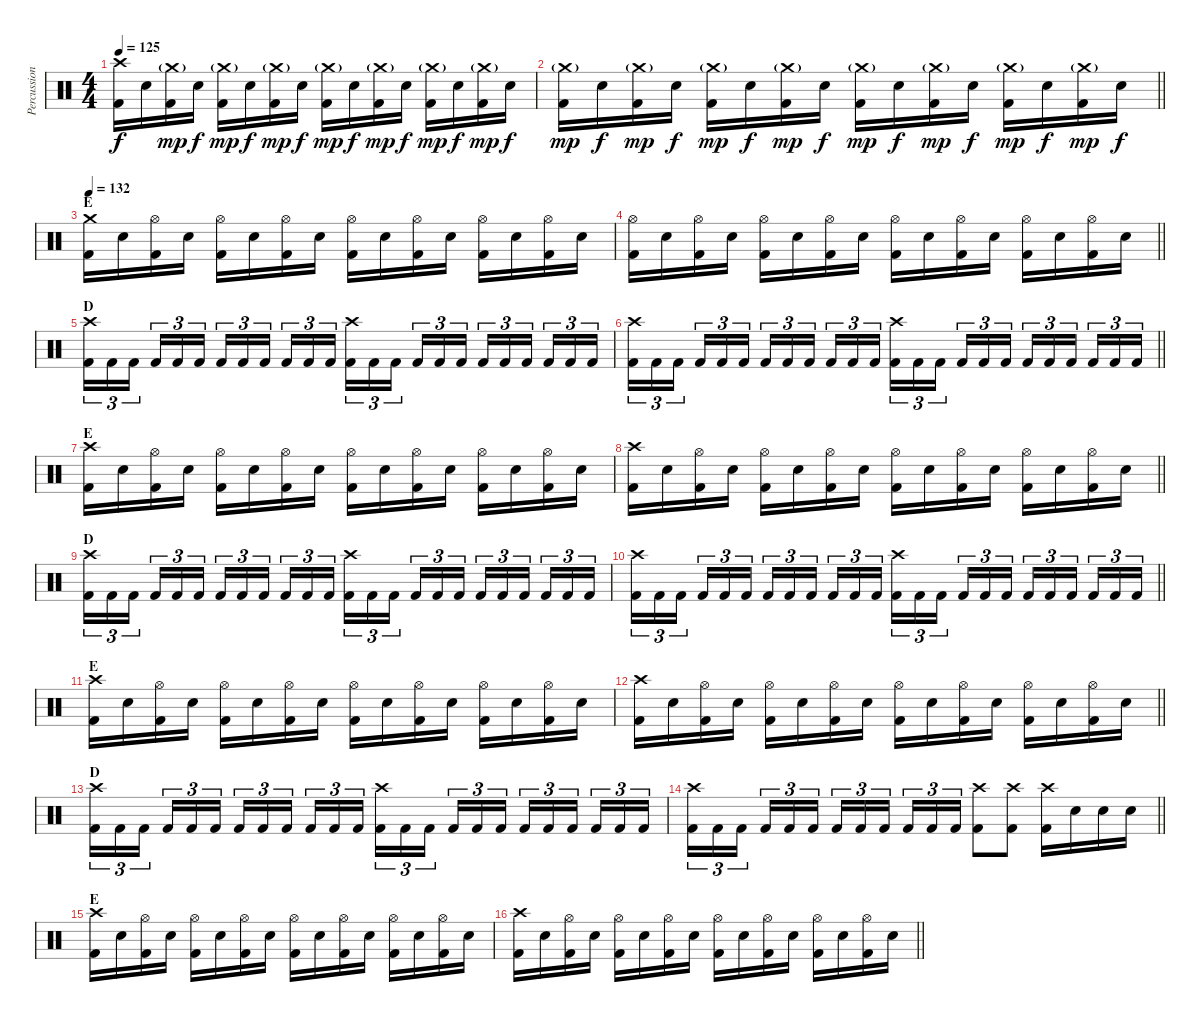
\track ("Percussion" "Percussion") {instrument percussion}
\staff {score}
\articulation defaults
\ts (4 4)
\tempo 125
\clef neutral
\ks c
("Crash high (hit)" "Kick (hit) 2").16{dy f} "Electric Snare (hit)".16 ("Crash medium (hit)"{g} "Kick (hit) 2").16{dy mp} "Electric Snare (hit)".16{dy f} ("Crash medium (hit)"{g} "Kick (hit) 2").16{dy mp} "Electric Snare (hit)".16{dy f} ("Crash medium (hit)"{g} "Kick (hit) 2").16{dy mp} "Electric Snare (hit)".16{dy f} ("Crash medium (hit)"{g} "Kick (hit) 2").16{dy mp} "Electric Snare (hit)".16{dy f} ("Crash medium (hit)"{g} "Kick (hit) 2").16{dy mp} "Electric Snare (hit)".16{dy f} ("Crash medium (hit)"{g} "Kick (hit) 2").16{dy mp} "Electric Snare (hit)".16{dy f} ("Crash medium (hit)"{g} "Kick (hit) 2").16{dy mp} "Electric Snare (hit)".16{dy f} |
\barLineRight lightlight
("Crash medium (hit)"{g} "Kick (hit) 2").16{dy mp} "Electric Snare (hit)".16{dy f} ("Crash medium (hit)"{g} "Kick (hit) 2").16{dy mp} "Electric Snare (hit)".16{dy f} ("Crash medium (hit)"{g} "Kick (hit) 2").16{dy mp} "Electric Snare (hit)".16{dy f} ("Crash medium (hit)"{g} "Kick (hit) 2").16{dy mp} "Electric Snare (hit)".16{dy f} ("Crash medium (hit)"{g} "Kick (hit) 2").16{dy mp} "Electric Snare (hit)".16{dy f} ("Crash medium (hit)"{g} "Kick (hit) 2").16{dy mp} "Electric Snare (hit)".16{dy f} ("Crash medium (hit)"{g} "Kick (hit) 2").16{dy mp} "Electric Snare (hit)".16{dy f} ("Crash medium (hit)"{g} "Kick (hit) 2").16{dy mp} "Electric Snare (hit)".16{dy f} |
\section ("" "E")
\tempo 132
("Crash medium (hit)" "Kick (hit) 2").16 "Electric Snare (hit)".16 ("Hi-Hat (open)" "Kick (hit) 2").16 "Electric Snare (hit)".16 ("Hi-Hat (open)" "Kick (hit) 2").16 "Electric Snare (hit)".16 ("Hi-Hat (open)" "Kick (hit) 2").16 "Electric Snare (hit)".16 ("Hi-Hat (open)" "Kick (hit) 2").16 "Electric Snare (hit)".16 ("Hi-Hat (open)" "Kick (hit) 2").16 "Electric Snare (hit)".16 ("Hi-Hat (open)" "Kick (hit) 2").16 "Electric Snare (hit)".16 ("Hi-Hat (open)" "Kick (hit) 2").16 "Electric Snare (hit)".16 |
\barLineRight lightlight
("Hi-Hat (open)" "Kick (hit) 2").16 "Electric Snare (hit)".16 ("Hi-Hat (open)" "Kick (hit) 2").16 "Electric Snare (hit)".16 ("Hi-Hat (open)" "Kick (hit) 2").16 "Electric Snare (hit)".16 ("Hi-Hat (open)" "Kick (hit) 2").16 "Electric Snare (hit)".16 ("Hi-Hat (open)" "Kick (hit) 2").16 "Electric Snare (hit)".16 ("Hi-Hat (open)" "Kick (hit) 2").16 "Electric Snare (hit)".16 ("Hi-Hat (open)" "Kick (hit) 2").16 "Electric Snare (hit)".16 ("Hi-Hat (open)" "Kick (hit) 2").16 "Electric Snare (hit)".16 |
\section ("" "D")
("Crash high (hit)" "Kick (hit) 2").16{tu (3 2)} "Kick (hit) 2".16{tu (3 2)} "Kick (hit) 2".16{tu (3 2) beam splitsecondary} "Kick (hit) 2".16{tu (3 2)} "Kick (hit) 2".16{tu (3 2)} "Kick (hit) 2".16{tu (3 2)} "Kick (hit) 2".16{tu (3 2)} "Kick (hit) 2".16{tu (3 2)} "Kick (hit) 2".16{tu (3 2) beam splitsecondary} "Kick (hit) 2".16{tu (3 2)} "Kick (hit) 2".16{tu (3 2)} "Kick (hit) 2".16{tu (3 2)} ("Crash high (hit)" "Kick (hit) 2").16{tu (3 2)} "Kick (hit) 2".16{tu (3 2)} "Kick (hit) 2".16{tu (3 2) beam splitsecondary} "Kick (hit) 2".16{tu (3 2)} "Kick (hit) 2".16{tu (3 2)} "Kick (hit) 2".16{tu (3 2)} "Kick (hit) 2".16{tu (3 2)} "Kick (hit) 2".16{tu (3 2)} "Kick (hit) 2".16{tu (3 2) beam splitsecondary} "Kick (hit) 2".16{tu (3 2)} "Kick (hit) 2".16{tu (3 2)} "Kick (hit) 2".16{tu (3 2)} |
\barLineRight lightlight
("Crash high (hit)" "Kick (hit) 2").16{tu (3 2)} "Kick (hit) 2".16{tu (3 2)} "Kick (hit) 2".16{tu (3 2) beam splitsecondary} "Kick (hit) 2".16{tu (3 2)} "Kick (hit) 2".16{tu (3 2)} "Kick (hit) 2".16{tu (3 2)} "Kick (hit) 2".16{tu (3 2)} "Kick (hit) 2".16{tu (3 2)} "Kick (hit) 2".16{tu (3 2) beam splitsecondary} "Kick (hit) 2".16{tu (3 2)} "Kick (hit) 2".16{tu (3 2)} "Kick (hit) 2".16{tu (3 2)} ("Crash high (hit)" "Kick (hit) 2").16{tu (3 2)} "Kick (hit) 2".16{tu (3 2)} "Kick (hit) 2".16{tu (3 2) beam splitsecondary} "Kick (hit) 2".16{tu (3 2)} "Kick (hit) 2".16{tu (3 2)} "Kick (hit) 2".16{tu (3 2)} "Kick (hit) 2".16{tu (3 2)} "Kick (hit) 2".16{tu (3 2)} "Kick (hit) 2".16{tu (3 2) beam splitsecondary} "Kick (hit) 2".16{tu (3 2)} "Kick (hit) 2".16{tu (3 2)} "Kick (hit) 2".16{tu (3 2)} |
\section ("" "E")
("Crash high (hit)" "Kick (hit) 2").16 "Electric Snare (hit)".16 ("Hi-Hat (open)" "Kick (hit) 2").16 "Electric Snare (hit)".16 ("Hi-Hat (open)" "Kick (hit) 2").16 "Electric Snare (hit)".16 ("Hi-Hat (open)" "Kick (hit) 2").16 "Electric Snare (hit)".16 ("Hi-Hat (open)" "Kick (hit) 2").16 "Electric Snare (hit)".16 ("Hi-Hat (open)" "Kick (hit) 2").16 "Electric Snare (hit)".16 ("Hi-Hat (open)" "Kick (hit) 2").16 "Electric Snare (hit)".16 ("Hi-Hat (open)" "Kick (hit) 2").16 "Electric Snare (hit)".16 |
\barLineRight lightlight
("Crash high (hit)" "Kick (hit) 2").16 "Electric Snare (hit)".16 ("Hi-Hat (open)" "Kick (hit) 2").16 "Electric Snare (hit)".16 ("Hi-Hat (open)" "Kick (hit) 2").16 "Electric Snare (hit)".16 ("Hi-Hat (open)" "Kick (hit) 2").16 "Electric Snare (hit)".16 ("Hi-Hat (open)" "Kick (hit) 2").16 "Electric Snare (hit)".16 ("Hi-Hat (open)" "Kick (hit) 2").16 "Electric Snare (hit)".16 ("Hi-Hat (open)" "Kick (hit) 2").16 "Electric Snare (hit)".16 ("Hi-Hat (open)" "Kick (hit) 2").16 "Electric Snare (hit)".16 |
\section ("" "D")
("Crash high (hit)" "Kick (hit) 2").16{tu (3 2)} "Kick (hit) 2".16{tu (3 2)} "Kick (hit) 2".16{tu (3 2) beam splitsecondary} "Kick (hit) 2".16{tu (3 2)} "Kick (hit) 2".16{tu (3 2)} "Kick (hit) 2".16{tu (3 2)} "Kick (hit) 2".16{tu (3 2)} "Kick (hit) 2".16{tu (3 2)} "Kick (hit) 2".16{tu (3 2) beam splitsecondary} "Kick (hit) 2".16{tu (3 2)} "Kick (hit) 2".16{tu (3 2)} "Kick (hit) 2".16{tu (3 2)} ("Crash high (hit)" "Kick (hit) 2").16{tu (3 2)} "Kick (hit) 2".16{tu (3 2)} "Kick (hit) 2".16{tu (3 2) beam splitsecondary} "Kick (hit) 2".16{tu (3 2)} "Kick (hit) 2".16{tu (3 2)} "Kick (hit) 2".16{tu (3 2)} "Kick (hit) 2".16{tu (3 2)} "Kick (hit) 2".16{tu (3 2)} "Kick (hit) 2".16{tu (3 2) beam splitsecondary} "Kick (hit) 2".16{tu (3 2)} "Kick (hit) 2".16{tu (3 2)} "Kick (hit) 2".16{tu (3 2)} |
\barLineRight lightlight
("Crash high (hit)" "Kick (hit) 2").16{tu (3 2)} "Kick (hit) 2".16{tu (3 2)} "Kick (hit) 2".16{tu (3 2) beam splitsecondary} "Kick (hit) 2".16{tu (3 2)} "Kick (hit) 2".16{tu (3 2)} "Kick (hit) 2".16{tu (3 2)} "Kick (hit) 2".16{tu (3 2)} "Kick (hit) 2".16{tu (3 2)} "Kick (hit) 2".16{tu (3 2) beam splitsecondary} "Kick (hit) 2".16{tu (3 2)} "Kick (hit) 2".16{tu (3 2)} "Kick (hit) 2".16{tu (3 2)} ("Crash high (hit)" "Kick (hit) 2").16{tu (3 2)} "Kick (hit) 2".16{tu (3 2)} "Kick (hit) 2".16{tu (3 2) beam splitsecondary} "Kick (hit) 2".16{tu (3 2)} "Kick (hit) 2".16{tu (3 2)} "Kick (hit) 2".16{tu (3 2)} "Kick (hit) 2".16{tu (3 2)} "Kick (hit) 2".16{tu (3 2)} "Kick (hit) 2".16{tu (3 2) beam splitsecondary} "Kick (hit) 2".16{tu (3 2)} "Kick (hit) 2".16{tu (3 2)} "Kick (hit) 2".16{tu (3 2)} |
\section ("" "E")
("Crash high (hit)" "Kick (hit) 2").16 "Electric Snare (hit)".16 ("Hi-Hat (open)" "Kick (hit) 2").16 "Electric Snare (hit)".16 ("Hi-Hat (open)" "Kick (hit) 2").16 "Electric Snare (hit)".16 ("Hi-Hat (open)" "Kick (hit) 2").16 "Electric Snare (hit)".16 ("Hi-Hat (open)" "Kick (hit) 2").16 "Electric Snare (hit)".16 ("Hi-Hat (open)" "Kick (hit) 2").16 "Electric Snare (hit)".16 ("Hi-Hat (open)" "Kick (hit) 2").16 "Electric Snare (hit)".16 ("Hi-Hat (open)" "Kick (hit) 2").16 "Electric Snare (hit)".16 |
\barLineRight lightlight
("Crash high (hit)" "Kick (hit) 2").16 "Electric Snare (hit)".16 ("Hi-Hat (open)" "Kick (hit) 2").16 "Electric Snare (hit)".16 ("Hi-Hat (open)" "Kick (hit) 2").16 "Electric Snare (hit)".16 ("Hi-Hat (open)" "Kick (hit) 2").16 "Electric Snare (hit)".16 ("Hi-Hat (open)" "Kick (hit) 2").16 "Electric Snare (hit)".16 ("Hi-Hat (open)" "Kick (hit) 2").16 "Electric Snare (hit)".16 ("Hi-Hat (open)" "Kick (hit) 2").16 "Electric Snare (hit)".16 ("Hi-Hat (open)" "Kick (hit) 2").16 "Electric Snare (hit)".16 |
\section ("" "D")
("Crash high (hit)" "Kick (hit) 2").16{tu (3 2)} "Kick (hit) 2".16{tu (3 2)} "Kick (hit) 2".16{tu (3 2) beam splitsecondary} "Kick (hit) 2".16{tu (3 2)} "Kick (hit) 2".16{tu (3 2)} "Kick (hit) 2".16{tu (3 2)} "Kick (hit) 2".16{tu (3 2)} "Kick (hit) 2".16{tu (3 2)} "Kick (hit) 2".16{tu (3 2) beam splitsecondary} "Kick (hit) 2".16{tu (3 2)} "Kick (hit) 2".16{tu (3 2)} "Kick (hit) 2".16{tu (3 2)} ("Crash high (hit)" "Kick (hit) 2").16{tu (3 2)} "Kick (hit) 2".16{tu (3 2)} "Kick (hit) 2".16{tu (3 2) beam splitsecondary} "Kick (hit) 2".16{tu (3 2)} "Kick (hit) 2".16{tu (3 2)} "Kick (hit) 2".16{tu (3 2)} "Kick (hit) 2".16{tu (3 2)} "Kick (hit) 2".16{tu (3 2)} "Kick (hit) 2".16{tu (3 2) beam splitsecondary} "Kick (hit) 2".16{tu (3 2)} "Kick (hit) 2".16{tu (3 2)} "Kick (hit) 2".16{tu (3 2)} |
\barLineRight lightlight
("Crash high (hit)" "Kick (hit) 2").16{tu (3 2)} "Kick (hit) 2".16{tu (3 2)} "Kick (hit) 2".16{tu (3 2) beam splitsecondary} "Kick (hit) 2".16{tu (3 2)} "Kick (hit) 2".16{tu (3 2)} "Kick (hit) 2".16{tu (3 2)} "Kick (hit) 2".16{tu (3 2)} "Kick (hit) 2".16{tu (3 2)} "Kick (hit) 2".16{tu (3 2) beam splitsecondary} "Kick (hit) 2".16{tu (3 2)} "Kick (hit) 2".16{tu (3 2)} "Kick (hit) 2".16{tu (3 2)} ("Crash high (hit)" "Kick (hit) 2").8 ("Crash high (hit)" "Kick (hit) 2").8 ("Crash high (hit)" "Kick (hit) 2").16 "Electric Snare (hit)".16 "Electric Snare (hit)".16 "Electric Snare (hit)".16 |
\section ("" "E")
("Crash high (hit)" "Kick (hit) 2").16 "Electric Snare (hit)".16 ("Hi-Hat (open)" "Kick (hit) 2").16 "Electric Snare (hit)".16 ("Hi-Hat (open)" "Kick (hit) 2").16 "Electric Snare (hit)".16 ("Hi-Hat (open)" "Kick (hit) 2").16 "Electric Snare (hit)".16 ("Hi-Hat (open)" "Kick (hit) 2").16 "Electric Snare (hit)".16 ("Hi-Hat (open)" "Kick (hit) 2").16 "Electric Snare (hit)".16 ("Hi-Hat (open)" "Kick (hit) 2").16 "Electric Snare (hit)".16 ("Hi-Hat (open)" "Kick (hit) 2").16 "Electric Snare (hit)".16 |
\barLineRight lightlight
("Crash high (hit)" "Kick (hit) 2").16 "Electric Snare (hit)".16 ("Hi-Hat (open)" "Kick (hit) 2").16 "Electric Snare (hit)".16 ("Hi-Hat (open)" "Kick (hit) 2").16 "Electric Snare (hit)".16 ("Hi-Hat (open)" "Kick (hit) 2").16 "Electric Snare (hit)".16 ("Hi-Hat (open)" "Kick (hit) 2").16 "Electric Snare (hit)".16 ("Hi-Hat (open)" "Kick (hit) 2").16 "Electric Snare (hit)".16 ("Hi-Hat (open)" "Kick (hit) 2").16 "Electric Snare (hit)".16 ("Hi-Hat (open)" "Kick (hit) 2").16 "Electric Snare (hit)".16
